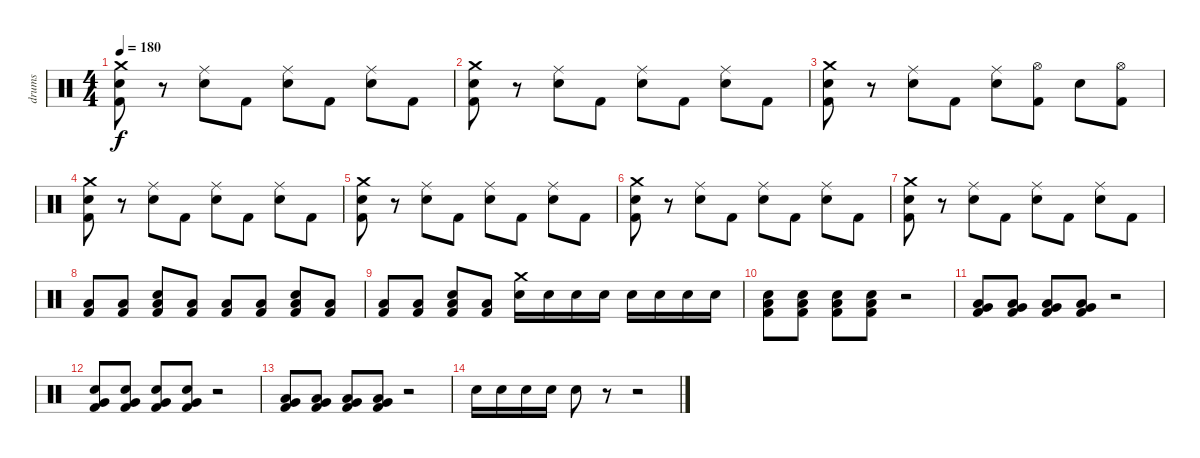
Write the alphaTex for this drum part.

\track ("drums" "drums") {instrument percussion}
\staff {score}
\articulation defaults
\ts (4 4)
\tempo 180
\clef neutral
\ks c
("Crash medium (hit)" "Snare (hit) 2" "Kick (hit) 2").8{dy f} r.8 ("Ride (middle)" "Snare (hit) 2").8 "Kick (hit) 2".8 ("Ride (middle)" "Snare (hit) 2").8 "Kick (hit) 2".8 ("Ride (middle)" "Snare (hit) 2").8 "Kick (hit) 2".8 |
("Crash medium (hit)" "Snare (hit) 2" "Kick (hit) 2").8 r.8 ("Ride (middle)" "Snare (hit) 2").8 "Kick (hit) 2".8 ("Ride (middle)" "Snare (hit) 2").8 "Kick (hit) 2".8 ("Ride (middle)" "Snare (hit) 2").8 "Kick (hit) 2".8 |
("Crash medium (hit)" "Snare (hit) 2" "Kick (hit) 2").8 r.8 ("Ride (middle)" "Snare (hit) 2").8 "Kick (hit) 2".8 ("Ride (middle)" "Snare (hit) 2").8 ("Hi-Hat (open)" "Kick (hit) 2").8 "Snare (hit) 2".8 ("Hi-Hat (open)" "Kick (hit) 2").8 |
("Crash medium (hit)" "Snare (hit) 2" "Kick (hit) 2").8 r.8 ("Ride (middle)" "Snare (hit) 2").8 "Kick (hit) 2".8 ("Ride (middle)" "Snare (hit) 2").8 "Kick (hit) 2".8 ("Ride (middle)" "Snare (hit) 2").8 "Kick (hit) 2".8 |
("Crash medium (hit)" "Snare (hit) 2" "Kick (hit) 2").8 r.8 ("Ride (middle)" "Snare (hit) 2").8 "Kick (hit) 2".8 ("Ride (middle)" "Snare (hit) 2").8 "Kick (hit) 2".8 ("Ride (middle)" "Snare (hit) 2").8 "Kick (hit) 2".8 |
("Crash medium (hit)" "Snare (hit) 2" "Kick (hit) 2").8 r.8 ("Ride (middle)" "Snare (hit) 2").8 "Kick (hit) 2".8 ("Ride (middle)" "Snare (hit) 2").8 "Kick (hit) 2".8 ("Ride (middle)" "Snare (hit) 2").8 "Kick (hit) 2".8 |
("Crash medium (hit)" "Snare (hit) 2" "Kick (hit) 2").8 r.8 ("Ride (middle)" "Snare (hit) 2").8 "Kick (hit) 2".8 ("Ride (middle)" "Snare (hit) 2").8 "Kick (hit) 2".8 ("Ride (middle)" "Snare (hit) 2").8 "Kick (hit) 2".8 |
("Low Floor Tom (hit)" "Kick (hit) 2").8 ("Low Floor Tom (hit)" "Kick (hit) 2").8 ("Low Floor Tom (hit)" "Snare (hit) 2" "Kick (hit) 2").8 ("Low Floor Tom (hit)" "Kick (hit) 2").8 ("Low Floor Tom (hit)" "Kick (hit) 2").8 ("Low Floor Tom (hit)" "Kick (hit) 2").8 ("Low Floor Tom (hit)" "Snare (hit) 2" "Kick (hit) 2").8 ("Low Floor Tom (hit)" "Kick (hit) 2").8 |
("Low Floor Tom (hit)" "Kick (hit) 2").8 ("Low Floor Tom (hit)" "Kick (hit) 2").8 ("Low Floor Tom (hit)" "Snare (hit) 2" "Kick (hit) 2").8 ("Low Floor Tom (hit)" "Kick (hit) 2").8 ("Crash medium (hit)" "Snare (hit) 2").16 "Snare (hit) 2".16 "Snare (hit) 2".16 "Snare (hit) 2".16 "Snare (hit) 2".16 "Snare (hit) 2".16 "Snare (hit) 2".16 "Snare (hit) 2".16 |
("Low Floor Tom (hit)" "Snare (hit) 2" "Kick (hit) 2").8 ("Low Floor Tom (hit)" "Snare (hit) 2" "Kick (hit) 2").8 ("Low Floor Tom (hit)" "Snare (hit) 2" "Kick (hit) 2").8 ("Low Floor Tom (hit)" "Snare (hit) 2" "Kick (hit) 2").8 r.2 |
("Low Floor Tom (hit)" "Very Low Tom (hit)" "Kick (hit) 2").8 ("Low Floor Tom (hit)" "Very Low Tom (hit)" "Kick (hit) 2").8 ("Low Floor Tom (hit)" "Very Low Tom (hit)" "Kick (hit) 2").8 ("Low Floor Tom (hit)" "Very Low Tom (hit)" "Kick (hit) 2").8 r.2 |
("Very Low Tom (hit)" "Snare (hit) 2" "Kick (hit) 2").8 ("Very Low Tom (hit)" "Snare (hit) 2" "Kick (hit) 2").8 ("Very Low Tom (hit)" "Snare (hit) 2" "Kick (hit) 2").8 ("Very Low Tom (hit)" "Snare (hit) 2" "Kick (hit) 2").8 r.2 |
("Low Floor Tom (hit)" "Very Low Tom (hit)" "Kick (hit) 2").8 ("Low Floor Tom (hit)" "Very Low Tom (hit)" "Kick (hit) 2").8 ("Low Floor Tom (hit)" "Very Low Tom (hit)" "Kick (hit) 2").8 ("Low Floor Tom (hit)" "Very Low Tom (hit)" "Kick (hit) 2").8 r.2 |
"Snare (hit) 2".16 "Snare (hit) 2".16 "Snare (hit) 2".16 "Snare (hit) 2".16 "Snare (hit) 2".8 r.8 r.2
